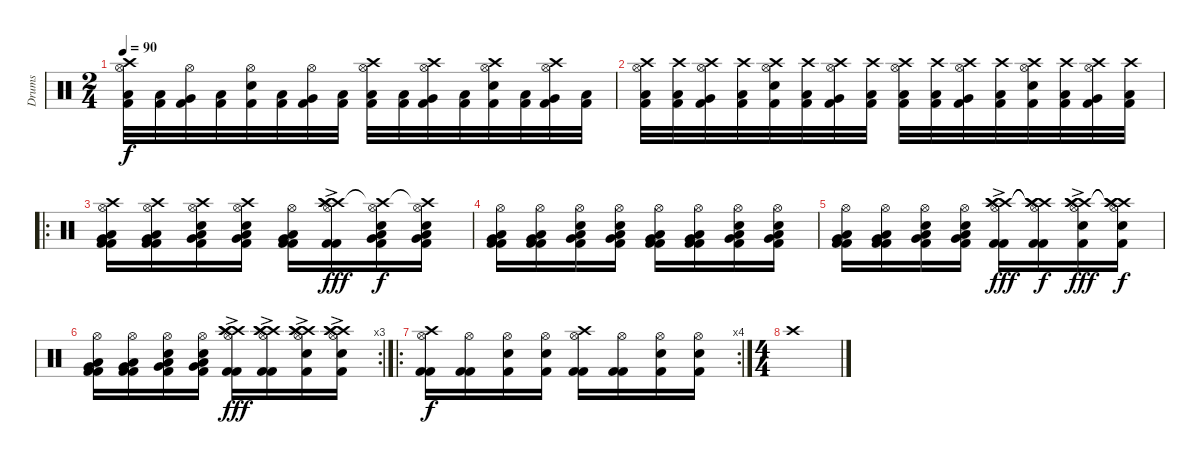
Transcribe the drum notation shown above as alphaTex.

\track ("Drums" "Drums") {instrument percussion}
\staff {score}
\articulation defaults
\ts (2 4)
\tempo 90
\clef neutral
\ks c
("Crash high (hit)" "Hi-Hat (open)" "Low Floor Tom (hit)" "Kick (hit) 2").32{dy f} ("Low Tom (hit)" "Kick (hit) 2").32 ("Hi-Hat (open)" "Very Low Tom (hit)" "Kick (hit) 2").32 ("Low Floor Tom (hit)" "Kick (hit) 2").32 ("Hi-Hat (open)" "Snare (hit) 2" "Kick (hit) 2").32 ("Low Tom (hit)" "Kick (hit) 2").32 ("Hi-Hat (open)" "Very Low Tom (hit)" "Kick (hit) 2").32 ("Low Floor Tom (hit)" "Kick (hit) 2").32 ("Crash high (hit)" "Hi-Hat (open)" "Low Floor Tom (hit)" "Kick (hit) 2").32 ("Low Tom (hit)" "Kick (hit) 2").32 ("Crash high (hit)" "Hi-Hat (open)" "Very Low Tom (hit)" "Kick (hit) 2").32 ("Low Floor Tom (hit)" "Kick (hit) 2").32 ("Crash high (hit)" "Hi-Hat (open)" "Snare (hit) 2" "Kick (hit) 2").32 ("Low Tom (hit)" "Kick (hit) 2").32 ("Crash high (hit)" "Hi-Hat (open)" "Very Low Tom (hit)" "Kick (hit) 2").32 ("Low Floor Tom (hit)" "Kick (hit) 2").32 |
("Crash high (hit)" "Hi-Hat (open)" "Low Floor Tom (hit)" "Kick (hit) 2").32 ("Crash high (hit)" "Low Tom (hit)" "Kick (hit) 2").32 ("Crash high (hit)" "Hi-Hat (open)" "Very Low Tom (hit)" "Kick (hit) 2").32 ("Crash high (hit)" "Low Floor Tom (hit)" "Kick (hit) 2").32 ("Crash high (hit)" "Hi-Hat (open)" "Snare (hit) 2" "Kick (hit) 2").32 ("Crash high (hit)" "Low Tom (hit)" "Kick (hit) 2").32 ("Crash high (hit)" "Hi-Hat (open)" "Very Low Tom (hit)" "Kick (hit) 2").32 ("Crash high (hit)" "Low Floor Tom (hit)" "Kick (hit) 2").32 ("Crash high (hit)" "Hi-Hat (open)" "Low Floor Tom (hit)" "Kick (hit) 2").32 ("Crash high (hit)" "Low Tom (hit)" "Kick (hit) 2").32 ("Crash high (hit)" "Hi-Hat (open)" "Very Low Tom (hit)" "Kick (hit) 2").32 ("Crash high (hit)" "Low Floor Tom (hit)" "Kick (hit) 2").32 ("Crash high (hit)" "Hi-Hat (open)" "Snare (hit) 2" "Kick (hit) 2").32 ("Crash high (hit)" "Low Tom (hit)" "Kick (hit) 2").32 ("Crash high (hit)" "Hi-Hat (open)" "Very Low Tom (hit)" "Kick (hit) 2").32 ("Crash high (hit)" "Low Floor Tom (hit)" "Kick (hit) 2").32 |
\ro
("Crash high (hit)" "Hi-Hat (open)" "Kick (hit) 2" "Kick (hit) 2" "Low Tom (hit)" "Very Low Tom (hit)").16 ("Crash high (hit)" "Hi-Hat (open)" "Kick (hit) 2" "Kick (hit) 2" "Low Tom (hit)" "Very Low Tom (hit)").16 ("Crash high (hit)" "Hi-Hat (open)" "Electric Snare (hit)" "Kick (hit) 2" "Low Tom (hit)" "Very Low Tom (hit)").16 ("Crash high (hit)" "Hi-Hat (open)" "Electric Snare (hit)" "Kick (hit) 2" "Low Tom (hit)" "Very Low Tom (hit)").16 ("Hi-Hat (open)" "Kick (hit) 2" "Kick (hit) 2" "Low Tom (hit)" "Very Low Tom (hit)").16 ("Crash high (hit)"{ac} "Hi-Hat (open)" "Kick (hit) 2" "Kick (hit) 2" "Crash high (hit)"{ac} "Crash high (hit)"{ac}).16{dy fff} ("Crash high (hit)"{t} "Hi-Hat (open)" "Electric Snare (hit)" "Kick (hit) 2" "Low Tom (hit)" "Very Low Tom (hit)").16{dy f} ("Crash high (hit)"{t} "Hi-Hat (open)" "Electric Snare (hit)" "Kick (hit) 2" "Low Tom (hit)" "Very Low Tom (hit)").16 |
("Hi-Hat (open)" "Kick (hit) 2" "Kick (hit) 2" "Low Tom (hit)" "Very Low Tom (hit)").16 ("Hi-Hat (open)" "Kick (hit) 2" "Kick (hit) 2" "Low Tom (hit)" "Very Low Tom (hit)").16 ("Hi-Hat (open)" "Electric Snare (hit)" "Kick (hit) 2" "Low Tom (hit)" "Very Low Tom (hit)").16 ("Hi-Hat (open)" "Electric Snare (hit)" "Kick (hit) 2" "Low Tom (hit)" "Very Low Tom (hit)").16 ("Hi-Hat (open)" "Kick (hit) 2" "Kick (hit) 2" "Low Tom (hit)" "Very Low Tom (hit)").16 ("Hi-Hat (open)" "Kick (hit) 2" "Kick (hit) 2" "Low Tom (hit)" "Very Low Tom (hit)").16 ("Hi-Hat (open)" "Electric Snare (hit)" "Kick (hit) 2" "Low Tom (hit)" "Very Low Tom (hit)").16 ("Hi-Hat (open)" "Electric Snare (hit)" "Kick (hit) 2" "Low Tom (hit)" "Very Low Tom (hit)").16 |
("Hi-Hat (open)" "Kick (hit) 2" "Kick (hit) 2" "Low Tom (hit)" "Very Low Tom (hit)").16 ("Hi-Hat (open)" "Kick (hit) 2" "Kick (hit) 2" "Low Tom (hit)" "Very Low Tom (hit)").16 ("Hi-Hat (open)" "Electric Snare (hit)" "Kick (hit) 2" "Low Tom (hit)" "Very Low Tom (hit)").16 ("Hi-Hat (open)" "Electric Snare (hit)" "Kick (hit) 2" "Low Tom (hit)" "Very Low Tom (hit)").16 ("Crash high (hit)"{ac} "Hi-Hat (open)" "Kick (hit) 2" "Kick (hit) 2" "Crash high (hit)"{ac} "Crash high (hit)"{ac}).16{dy fff} ("Crash high (hit)"{t} "Hi-Hat (open)" "Kick (hit) 2" "Kick (hit) 2" "Crash high (hit)"{t} "Crash high (hit)"{t}).16{dy f} ("Crash high (hit)"{ac} "Hi-Hat (open)" "Electric Snare (hit)" "Kick (hit) 2" "Crash high (hit)"{ac} "Crash high (hit)").16{dy fff} ("Crash high (hit)"{t} "Hi-Hat (open)" "Electric Snare (hit)" "Kick (hit) 2" "Crash high (hit)" "Crash high (hit)"{t}).16{dy f} |
\rc 3
("Hi-Hat (open)" "Kick (hit) 2" "Kick (hit) 2" "Low Tom (hit)" "Very Low Tom (hit)").16 ("Hi-Hat (open)" "Kick (hit) 2" "Kick (hit) 2" "Low Tom (hit)" "Very Low Tom (hit)").16 ("Hi-Hat (open)" "Electric Snare (hit)" "Kick (hit) 2" "Low Tom (hit)" "Very Low Tom (hit)").16 ("Hi-Hat (open)" "Electric Snare (hit)" "Kick (hit) 2" "Low Tom (hit)" "Very Low Tom (hit)").16 ("Crash high (hit)"{ac} "Hi-Hat (open)" "Kick (hit) 2" "Kick (hit) 2" "Crash high (hit)"{ac} "Crash high (hit)"{ac}).16{dy fff} ("Crash high (hit)"{ac} "Hi-Hat (open)" "Kick (hit) 2" "Kick (hit) 2" "Crash high (hit)"{ac} "Crash high (hit)"{ac}).16 ("Crash high (hit)"{ac} "Hi-Hat (open)" "Electric Snare (hit)" "Kick (hit) 2" "Crash high (hit)"{ac} "Crash high (hit)"{ac}).16 ("Crash high (hit)"{ac} "Hi-Hat (open)" "Electric Snare (hit)" "Kick (hit) 2" "Crash high (hit)"{ac} "Crash high (hit)"{ac}).16 |
\ro
\rc 4
("Crash high (hit)" "Hi-Hat (open)" "Kick (hit) 2" "Kick (hit) 2").16{dy f} ("Hi-Hat (open)" "Kick (hit) 2" "Kick (hit) 2").16 ("Hi-Hat (open)" "Electric Snare (hit)" "Kick (hit) 2").16 ("Hi-Hat (open)" "Electric Snare (hit)" "Kick (hit) 2").16 ("Crash high (hit)" "Hi-Hat (open)" "Kick (hit) 2" "Kick (hit) 2").16 ("Hi-Hat (open)" "Kick (hit) 2" "Kick (hit) 2").16 ("Hi-Hat (open)" "Electric Snare (hit)" "Kick (hit) 2").16 ("Hi-Hat (open)" "Electric Snare (hit)" "Kick (hit) 2").16 |
\ts (4 4)
"Crash high (hit)".1
